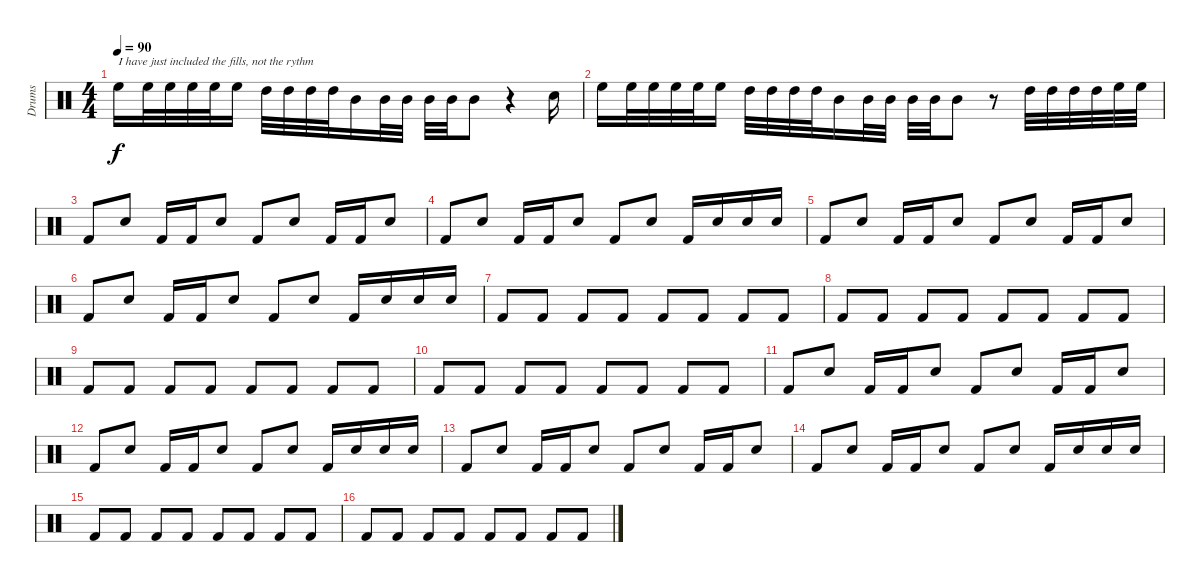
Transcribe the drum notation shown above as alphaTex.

\track ("Drums" "Drums") {instrument percussion}
\staff {score}
\articulation defaults
\ts (4 4)
\tempo 90
\clef neutral
\ks c "High Floor Tom (hit)".16{txt "I have just included the fills, not the rythm" dy f} "High Floor Tom (hit)".32 "High Floor Tom (hit)".32 "High Floor Tom (hit)".32 "High Floor Tom (hit)".32 "High Floor Tom (hit)".16 "High Tom (hit)".32 "High Tom (hit)".32 "High Tom (hit)".32 "High Tom (hit)".32 "Mid Tom (hit)".16 "Mid Tom (hit)".32 "Mid Tom (hit)".32 "Mid Tom (hit)".32 "Mid Tom (hit)".32 "Mid Tom (hit)".8
r.4 "Snare (hit) 2".16 |
"High Floor Tom (hit)".16 "High Floor Tom (hit)".32 "High Floor Tom (hit)".32 "High Floor Tom (hit)".32 "High Floor Tom (hit)".32 "High Floor Tom (hit)".16 "High Tom (hit)".32 "High Tom (hit)".32 "High Tom (hit)".32 "High Tom (hit)".32 "Mid Tom (hit)".16 "Mid Tom (hit)".32 "Mid Tom (hit)".32 "Mid Tom (hit)".32 "Mid Tom (hit)".32 "Mid Tom (hit)".8 r.8 "High Tom (hit)".32 "High Tom (hit)".32 "High Tom (hit)".32 "High Tom (hit)".32 "High Floor Tom (hit)".32 "High Floor Tom (hit)".32 |
"Kick (hit) 2".8 "Snare (hit) 2".8 "Kick (hit) 2".16 "Kick (hit) 2".16 "Snare (hit) 2".8 "Kick (hit) 2".8 "Snare (hit) 2".8 "Kick (hit) 2".16 "Kick (hit) 2".16 "Snare (hit) 2".8 |
"Kick (hit) 2".8 "Snare (hit) 2".8 "Kick (hit) 2".16 "Kick (hit) 2".16 "Snare (hit) 2".8 "Kick (hit) 2".8 "Snare (hit) 2".8 "Kick (hit) 2".16 "Snare (hit) 2".16 "Snare (hit) 2".16 "Snare (hit) 2".16 |
"Kick (hit) 2".8 "Snare (hit) 2".8 "Kick (hit) 2".16 "Kick (hit) 2".16 "Snare (hit) 2".8 "Kick (hit) 2".8 "Snare (hit) 2".8 "Kick (hit) 2".16 "Kick (hit) 2".16 "Snare (hit) 2".8 |
"Kick (hit) 2".8 "Snare (hit) 2".8 "Kick (hit) 2".16 "Kick (hit) 2".16 "Snare (hit) 2".8 "Kick (hit) 2".8 "Snare (hit) 2".8 "Kick (hit) 2".16 "Snare (hit) 2".16 "Snare (hit) 2".16 "Snare (hit) 2".16 |
"Kick (hit) 2".8 "Kick (hit) 2".8 "Kick (hit) 2".8 "Kick (hit) 2".8 "Kick (hit) 2".8 "Kick (hit) 2".8 "Kick (hit) 2".8 "Kick (hit) 2".8 |
"Kick (hit) 2".8 "Kick (hit) 2".8 "Kick (hit) 2".8 "Kick (hit) 2".8 "Kick (hit) 2".8 "Kick (hit) 2".8 "Kick (hit) 2".8 "Kick (hit) 2".8 |
"Kick (hit) 2".8 "Kick (hit) 2".8 "Kick (hit) 2".8 "Kick (hit) 2".8 "Kick (hit) 2".8 "Kick (hit) 2".8 "Kick (hit) 2".8 "Kick (hit) 2".8 |
"Kick (hit) 2".8 "Kick (hit) 2".8 "Kick (hit) 2".8 "Kick (hit) 2".8 "Kick (hit) 2".8 "Kick (hit) 2".8 "Kick (hit) 2".8 "Kick (hit) 2".8 |
"Kick (hit) 2".8 "Snare (hit) 2".8 "Kick (hit) 2".16 "Kick (hit) 2".16 "Snare (hit) 2".8 "Kick (hit) 2".8 "Snare (hit) 2".8 "Kick (hit) 2".16 "Kick (hit) 2".16 "Snare (hit) 2".8 |
"Kick (hit) 2".8 "Snare (hit) 2".8 "Kick (hit) 2".16 "Kick (hit) 2".16 "Snare (hit) 2".8 "Kick (hit) 2".8 "Snare (hit) 2".8 "Kick (hit) 2".16 "Snare (hit) 2".16 "Snare (hit) 2".16 "Snare (hit) 2".16 |
"Kick (hit) 2".8 "Snare (hit) 2".8 "Kick (hit) 2".16 "Kick (hit) 2".16 "Snare (hit) 2".8 "Kick (hit) 2".8 "Snare (hit) 2".8 "Kick (hit) 2".16 "Kick (hit) 2".16 "Snare (hit) 2".8 |
"Kick (hit) 2".8 "Snare (hit) 2".8 "Kick (hit) 2".16 "Kick (hit) 2".16 "Snare (hit) 2".8 "Kick (hit) 2".8 "Snare (hit) 2".8 "Kick (hit) 2".16 "Snare (hit) 2".16 "Snare (hit) 2".16 "Snare (hit) 2".16 |
"Kick (hit) 2".8 "Kick (hit) 2".8 "Kick (hit) 2".8 "Kick (hit) 2".8 "Kick (hit) 2".8 "Kick (hit) 2".8 "Kick (hit) 2".8 "Kick (hit) 2".8 |
"Kick (hit) 2".8 "Kick (hit) 2".8 "Kick (hit) 2".8 "Kick (hit) 2".8 "Kick (hit) 2".8 "Kick (hit) 2".8 "Kick (hit) 2".8 "Kick (hit) 2".8
